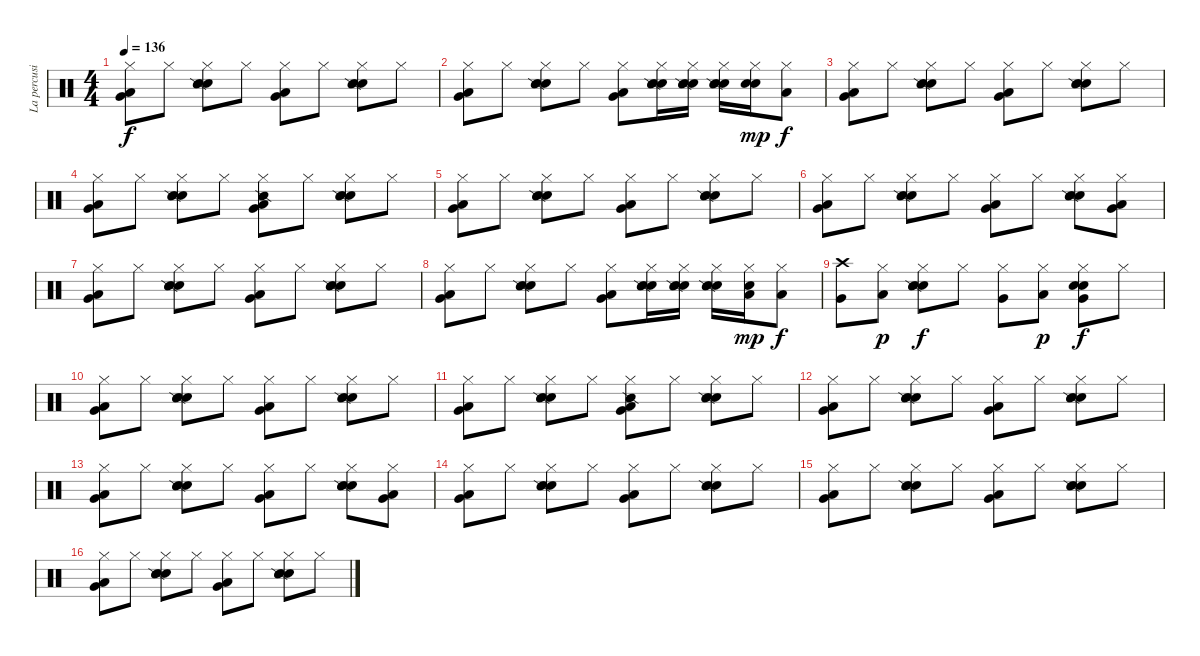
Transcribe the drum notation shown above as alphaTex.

\track ("La percusión" "La percusi") {instrument percussion}
\staff {score}
\articulation defaults
\ts (4 4)
\tempo 136
\clef neutral
\ks c
("Hi-Hat (closed)" "Low Floor Tom (hit)" "Very Low Tom (hit)").8{dy f} "Hi-Hat (closed)".8 ("Hi-Hat (closed)" "Snare (hit) 2" "Snare (hit) 2" "Snare (side stick) 2").8 "Hi-Hat (closed)".8 ("Hi-Hat (closed)" "Low Floor Tom (hit)" "Very Low Tom (hit)").8 "Hi-Hat (closed)".8 ("Hi-Hat (closed)" "Snare (hit) 2" "Snare (hit) 2" "Snare (side stick) 2").8 "Hi-Hat (closed)".8 |
("Hi-Hat (closed)" "Low Floor Tom (hit)" "Very Low Tom (hit)").8 "Hi-Hat (closed)".8 ("Hi-Hat (closed)" "Snare (hit) 2" "Snare (hit) 2" "Snare (side stick) 2").8 "Hi-Hat (closed)".8 ("Hi-Hat (closed)" "Low Floor Tom (hit)" "Very Low Tom (hit)").8 ("Hi-Hat (closed)" "Snare (hit) 2" "Snare (hit) 2" "Snare (side stick) 2").16 ("Hi-Hat (closed)" "Snare (hit) 2" "Snare (hit) 2" "Snare (side stick) 2").16 ("Hi-Hat (closed)" "Snare (hit) 2" "Snare (hit) 2" "Snare (side stick) 2").16 ("Hi-Hat (closed)" "Snare (hit) 2" "Snare (hit) 2").16{dy mp} ("Hi-Hat (closed)" "Low Floor Tom (hit)").8{dy f} |
("Hi-Hat (closed)" "Low Floor Tom (hit)" "Very Low Tom (hit)").8 "Hi-Hat (closed)".8 ("Hi-Hat (closed)" "Snare (hit) 2" "Snare (hit) 2" "Snare (side stick) 2").8 "Hi-Hat (closed)".8 ("Hi-Hat (closed)" "Low Floor Tom (hit)" "Very Low Tom (hit)").8 "Hi-Hat (closed)".8 ("Hi-Hat (closed)" "Snare (hit) 2" "Snare (hit) 2" "Snare (side stick) 2").8 "Hi-Hat (closed)".8 |
("Hi-Hat (closed)" "Low Floor Tom (hit)" "Very Low Tom (hit)").8 "Hi-Hat (closed)".8 ("Hi-Hat (closed)" "Snare (hit) 2" "Snare (hit) 2" "Snare (side stick) 2").8 "Hi-Hat (closed)".8 ("Hi-Hat (closed)" "Low Floor Tom (hit)" "Very Low Tom (hit)" "Snare (side stick) 2").8 "Hi-Hat (closed)".8 ("Hi-Hat (closed)" "Snare (hit) 2" "Snare (hit) 2" "Snare (side stick) 2").8 "Hi-Hat (closed)".8 |
("Hi-Hat (closed)" "Low Floor Tom (hit)" "Very Low Tom (hit)").8 "Hi-Hat (closed)".8 ("Hi-Hat (closed)" "Snare (hit) 2" "Snare (hit) 2" "Snare (side stick) 2").8 "Hi-Hat (closed)".8 ("Hi-Hat (closed)" "Low Floor Tom (hit)" "Very Low Tom (hit)").8 "Hi-Hat (closed)".8 ("Hi-Hat (closed)" "Snare (hit) 2" "Snare (hit) 2" "Snare (side stick) 2").8 "Hi-Hat (closed)".8 |
("Hi-Hat (closed)" "Low Floor Tom (hit)" "Very Low Tom (hit)").8 "Hi-Hat (closed)".8 ("Hi-Hat (closed)" "Snare (hit) 2" "Snare (hit) 2" "Snare (side stick) 2").8 "Hi-Hat (closed)".8 ("Hi-Hat (closed)" "Low Floor Tom (hit)" "Very Low Tom (hit)").8 "Hi-Hat (closed)".8 ("Hi-Hat (closed)" "Snare (hit) 2" "Snare (hit) 2" "Snare (side stick) 2").8 ("Hi-Hat (closed)" "Low Floor Tom (hit)" "Very Low Tom (hit)").8 |
("Hi-Hat (closed)" "Low Floor Tom (hit)" "Very Low Tom (hit)").8 "Hi-Hat (closed)".8 ("Hi-Hat (closed)" "Snare (hit) 2" "Snare (hit) 2" "Snare (side stick) 2").8 "Hi-Hat (closed)".8 ("Hi-Hat (closed)" "Low Floor Tom (hit)" "Very Low Tom (hit)").8 "Hi-Hat (closed)".8 ("Hi-Hat (closed)" "Snare (hit) 2" "Snare (hit) 2" "Snare (side stick) 2").8 "Hi-Hat (closed)".8 |
("Hi-Hat (closed)" "Low Floor Tom (hit)" "Very Low Tom (hit)").8 "Hi-Hat (closed)".8 ("Hi-Hat (closed)" "Snare (hit) 2" "Snare (hit) 2" "Snare (side stick) 2").8 "Hi-Hat (closed)".8 ("Hi-Hat (closed)" "Low Floor Tom (hit)" "Very Low Tom (hit)").8 ("Hi-Hat (closed)" "Snare (hit) 2" "Snare (hit) 2" "Snare (side stick) 2").16 ("Hi-Hat (closed)" "Snare (hit) 2" "Snare (hit) 2" "Snare (side stick) 2").16 ("Hi-Hat (closed)" "Snare (hit) 2" "Snare (hit) 2" "Snare (side stick) 2").16 ("Hi-Hat (closed)" "Low Tom (hit)" "Snare (hit) 2").16{dy mp} ("Hi-Hat (closed)" "Low Floor Tom (hit)").8{dy f} |
("Crash high (hit)" "Very Low Tom (hit)").8 ("Hi-Hat (closed)" "Low Floor Tom (hit)").8{dy p} ("Hi-Hat (closed)" "Snare (hit) 2" "Snare (hit) 2" "Snare (side stick) 2").8{dy f} "Hi-Hat (closed)".8 ("Hi-Hat (closed)" "Very Low Tom (hit)").8 ("Hi-Hat (closed)" "Low Floor Tom (hit)").8{dy p} ("Hi-Hat (closed)" "Snare (hit) 2" "Snare (hit) 2" "Very Low Tom (hit)").8{dy f} "Hi-Hat (closed)".8 |
("Hi-Hat (closed)" "Low Floor Tom (hit)" "Very Low Tom (hit)").8 "Hi-Hat (closed)".8 ("Hi-Hat (closed)" "Snare (hit) 2" "Snare (hit) 2" "Snare (side stick) 2").8 "Hi-Hat (closed)".8 ("Hi-Hat (closed)" "Low Floor Tom (hit)" "Very Low Tom (hit)").8 "Hi-Hat (closed)".8 ("Hi-Hat (closed)" "Snare (hit) 2" "Snare (hit) 2" "Snare (side stick) 2").8 "Hi-Hat (closed)".8 |
("Hi-Hat (closed)" "Low Floor Tom (hit)" "Very Low Tom (hit)").8 "Hi-Hat (closed)".8 ("Hi-Hat (closed)" "Snare (hit) 2" "Snare (hit) 2" "Snare (side stick) 2").8 "Hi-Hat (closed)".8 ("Hi-Hat (closed)" "Low Floor Tom (hit)" "Very Low Tom (hit)" "Snare (side stick) 2").8 "Hi-Hat (closed)".8 ("Hi-Hat (closed)" "Snare (hit) 2" "Snare (hit) 2" "Snare (side stick) 2").8 "Hi-Hat (closed)".8 |
("Hi-Hat (closed)" "Low Floor Tom (hit)" "Very Low Tom (hit)").8 "Hi-Hat (closed)".8 ("Hi-Hat (closed)" "Snare (hit) 2" "Snare (hit) 2" "Snare (side stick) 2").8 "Hi-Hat (closed)".8 ("Hi-Hat (closed)" "Low Floor Tom (hit)" "Very Low Tom (hit)").8 "Hi-Hat (closed)".8 ("Hi-Hat (closed)" "Snare (hit) 2" "Snare (hit) 2" "Snare (side stick) 2").8 "Hi-Hat (closed)".8 |
("Hi-Hat (closed)" "Low Floor Tom (hit)" "Very Low Tom (hit)").8 "Hi-Hat (closed)".8 ("Hi-Hat (closed)" "Snare (hit) 2" "Snare (hit) 2" "Snare (side stick) 2").8 "Hi-Hat (closed)".8 ("Hi-Hat (closed)" "Low Floor Tom (hit)" "Very Low Tom (hit)").8 "Hi-Hat (closed)".8 ("Hi-Hat (closed)" "Snare (hit) 2" "Snare (hit) 2" "Snare (side stick) 2").8 ("Hi-Hat (closed)" "Low Floor Tom (hit)" "Very Low Tom (hit)").8 |
("Hi-Hat (closed)" "Low Floor Tom (hit)" "Very Low Tom (hit)").8 "Hi-Hat (closed)".8 ("Hi-Hat (closed)" "Snare (hit) 2" "Snare (hit) 2" "Snare (side stick) 2").8 "Hi-Hat (closed)".8 ("Hi-Hat (closed)" "Low Floor Tom (hit)" "Very Low Tom (hit)").8 "Hi-Hat (closed)".8 ("Hi-Hat (closed)" "Snare (hit) 2" "Snare (hit) 2" "Snare (side stick) 2").8 "Hi-Hat (closed)".8 |
("Hi-Hat (closed)" "Low Floor Tom (hit)" "Very Low Tom (hit)").8 "Hi-Hat (closed)".8 ("Hi-Hat (closed)" "Snare (hit) 2" "Snare (hit) 2" "Snare (side stick) 2").8 "Hi-Hat (closed)".8 ("Hi-Hat (closed)" "Low Floor Tom (hit)" "Very Low Tom (hit)").8 "Hi-Hat (closed)".8 ("Hi-Hat (closed)" "Snare (hit) 2" "Snare (hit) 2" "Snare (side stick) 2").8 "Hi-Hat (closed)".8 |
("Hi-Hat (closed)" "Low Floor Tom (hit)" "Very Low Tom (hit)").8 "Hi-Hat (closed)".8 ("Hi-Hat (closed)" "Snare (hit) 2" "Snare (hit) 2" "Snare (side stick) 2").8 "Hi-Hat (closed)".8 ("Hi-Hat (closed)" "Low Floor Tom (hit)" "Very Low Tom (hit)").8 "Hi-Hat (closed)".8 ("Hi-Hat (closed)" "Snare (hit) 2" "Snare (hit) 2" "Snare (side stick) 2").8 "Hi-Hat (closed)".8
